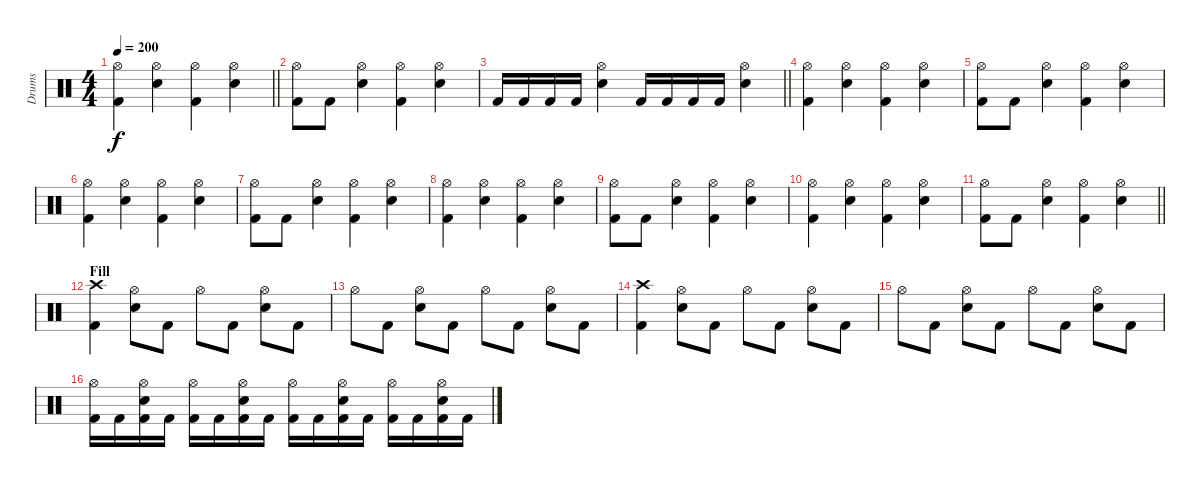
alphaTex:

\track ("Drums" "Drums") {instrument percussion}
\staff {score}
\articulation defaults
\ts (4 4)
\tempo 200
\clef neutral
\barLineRight lightlight
\ks c
("Hi-Hat (open)" "Kick (hit) 2").4{dy f} ("Hi-Hat (open)" "Electric Snare (hit)").4 ("Hi-Hat (open)" "Kick (hit) 2").4 ("Hi-Hat (open)" "Electric Snare (hit)").4 |
("Hi-Hat (open)" "Kick (hit) 2").8 "Kick (hit) 2".8 ("Hi-Hat (open)" "Electric Snare (hit)").4 ("Hi-Hat (open)" "Kick (hit) 2").4 ("Hi-Hat (open)" "Electric Snare (hit)").4 |
\barLineRight lightlight "Kick (hit) 2".16 "Kick (hit) 2".16 "Kick (hit) 2".16 "Kick (hit) 2".16
("Hi-Hat (open)" "Electric Snare (hit)").4 "Kick (hit) 2".16 "Kick (hit) 2".16 "Kick (hit) 2".16 "Kick (hit) 2".16 ("Hi-Hat (open)" "Electric Snare (hit)").4 |
("Hi-Hat (open)" "Kick (hit) 2").4 ("Hi-Hat (open)" "Electric Snare (hit)").4 ("Hi-Hat (open)" "Kick (hit) 2").4 ("Hi-Hat (open)" "Electric Snare (hit)").4 |
("Hi-Hat (open)" "Kick (hit) 2").8 "Kick (hit) 2".8 ("Hi-Hat (open)" "Electric Snare (hit)").4 ("Hi-Hat (open)" "Kick (hit) 2").4 ("Hi-Hat (open)" "Electric Snare (hit)").4 |
("Hi-Hat (open)" "Kick (hit) 2").4 ("Hi-Hat (open)" "Electric Snare (hit)").4 ("Hi-Hat (open)" "Kick (hit) 2").4 ("Hi-Hat (open)" "Electric Snare (hit)").4 |
("Hi-Hat (open)" "Kick (hit) 2").8 "Kick (hit) 2".8 ("Hi-Hat (open)" "Electric Snare (hit)").4 ("Hi-Hat (open)" "Kick (hit) 2").4 ("Hi-Hat (open)" "Electric Snare (hit)").4 |
("Hi-Hat (open)" "Kick (hit) 2").4 ("Hi-Hat (open)" "Electric Snare (hit)").4 ("Hi-Hat (open)" "Kick (hit) 2").4 ("Hi-Hat (open)" "Electric Snare (hit)").4 |
("Hi-Hat (open)" "Kick (hit) 2").8 "Kick (hit) 2".8 ("Hi-Hat (open)" "Electric Snare (hit)").4 ("Hi-Hat (open)" "Kick (hit) 2").4 ("Hi-Hat (open)" "Electric Snare (hit)").4 |
("Hi-Hat (open)" "Kick (hit) 2").4 ("Hi-Hat (open)" "Electric Snare (hit)").4 ("Hi-Hat (open)" "Kick (hit) 2").4 ("Hi-Hat (open)" "Electric Snare (hit)").4 |
\barLineRight lightlight
("Hi-Hat (open)" "Kick (hit) 2").8 "Kick (hit) 2".8 ("Hi-Hat (open)" "Electric Snare (hit)").4 ("Hi-Hat (open)" "Kick (hit) 2").4 ("Hi-Hat (open)" "Electric Snare (hit)").4 |
\section ("" "Fill")
("Crash high (hit)" "Kick (hit) 2").4 ("Hi-Hat (open)" "Electric Snare (hit)").8 "Kick (hit) 2".8 "Hi-Hat (open)".8 "Kick (hit) 2".8 ("Hi-Hat (open)" "Electric Snare (hit)").8 "Kick (hit) 2".8 |
"Hi-Hat (open)".8 "Kick (hit) 2".8 ("Hi-Hat (open)" "Electric Snare (hit)").8 "Kick (hit) 2".8 "Hi-Hat (open)".8 "Kick (hit) 2".8 ("Hi-Hat (open)" "Electric Snare (hit)").8 "Kick (hit) 2".8 |
("Crash high (hit)" "Kick (hit) 2").4 ("Hi-Hat (open)" "Electric Snare (hit)").8 "Kick (hit) 2".8 "Hi-Hat (open)".8 "Kick (hit) 2".8 ("Hi-Hat (open)" "Electric Snare (hit)").8 "Kick (hit) 2".8 |
"Hi-Hat (open)".8 "Kick (hit) 2".8 ("Hi-Hat (open)" "Electric Snare (hit)").8 "Kick (hit) 2".8 "Hi-Hat (open)".8 "Kick (hit) 2".8 ("Hi-Hat (open)" "Electric Snare (hit)").8 "Kick (hit) 2".8 |
("Hi-Hat (open)" "Kick (hit) 2").16 "Kick (hit) 2".16 ("Hi-Hat (open)" "Electric Snare (hit)" "Kick (hit) 2").16 "Kick (hit) 2".16 ("Hi-Hat (open)" "Kick (hit) 2").16 "Kick (hit) 2".16 ("Hi-Hat (open)" "Electric Snare (hit)" "Kick (hit) 2").16 "Kick (hit) 2".16 ("Hi-Hat (open)" "Kick (hit) 2").16 "Kick (hit) 2".16 ("Hi-Hat (open)" "Electric Snare (hit)" "Kick (hit) 2").16 "Kick (hit) 2".16 ("Hi-Hat (open)" "Kick (hit) 2").16 "Kick (hit) 2".16 ("Hi-Hat (open)" "Electric Snare (hit)" "Kick (hit) 2").16 "Kick (hit) 2".16
